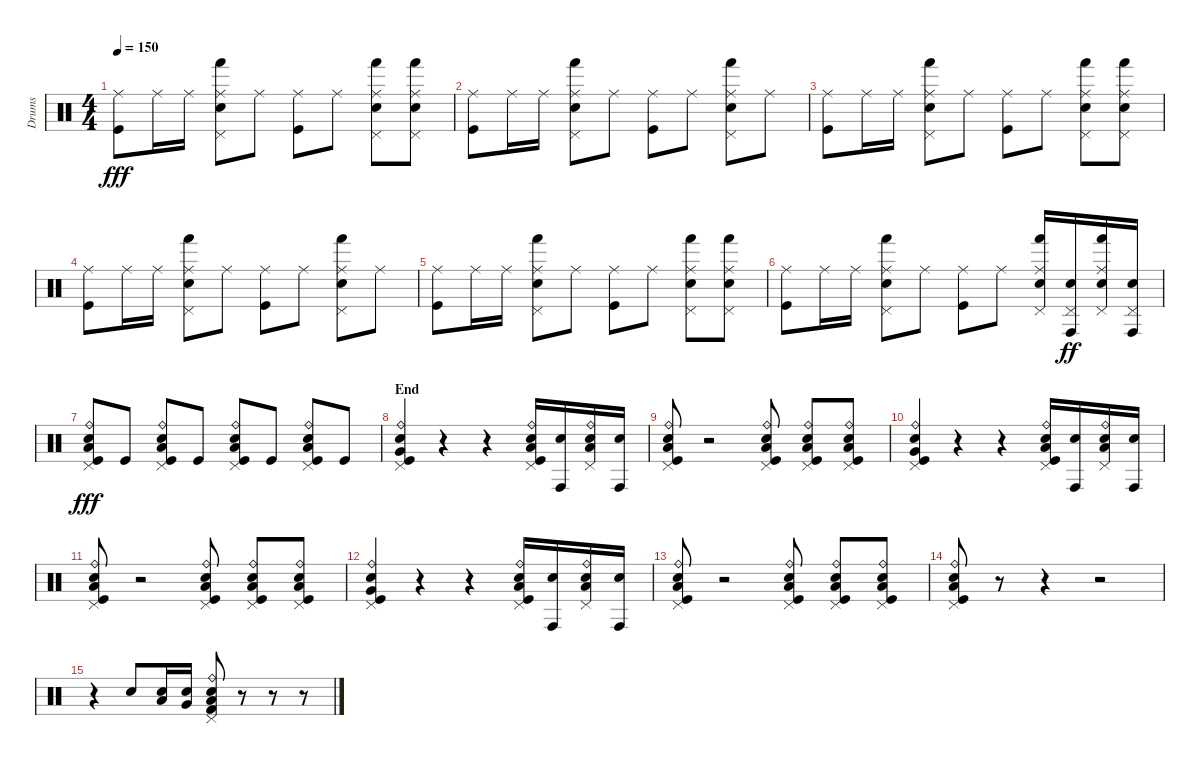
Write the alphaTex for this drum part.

\track ("Drums" "Drums") {instrument percussion}
\staff {score}
\articulation defaults
\ts (4 4)
\tempo 150
\clef neutral
\ks c
("Ride (middle)" "Kick (hit)").8{dy fff} "Ride (middle)".16 "Ride (middle)".16 ("Ride (middle)" "Pedal Hi-Hat (hit)" "Hand (hit)" "Electric Snare (hit)").8 "Ride (middle)".8 ("Ride (middle)" "Kick (hit)").8 "Ride (middle)".8 ("Ride (middle)" "Pedal Hi-Hat (hit)" "Hand (hit)" "Electric Snare (hit)").8 ("Ride (middle)" "Pedal Hi-Hat (hit)" "Hand (hit)" "Electric Snare (hit)").8 |
("Ride (middle)" "Kick (hit)").8 "Ride (middle)".16 "Ride (middle)".16 ("Ride (middle)" "Pedal Hi-Hat (hit)" "Hand (hit)" "Electric Snare (hit)").8 "Ride (middle)".8 ("Ride (middle)" "Kick (hit)").8 "Ride (middle)".8 ("Ride (middle)" "Pedal Hi-Hat (hit)" "Hand (hit)" "Electric Snare (hit)").8 "Ride (middle)".8 |
("Ride (middle)" "Kick (hit)").8 "Ride (middle)".16 "Ride (middle)".16 ("Ride (middle)" "Pedal Hi-Hat (hit)" "Hand (hit)" "Electric Snare (hit)").8 "Ride (middle)".8 ("Ride (middle)" "Kick (hit)").8 "Ride (middle)".8 ("Ride (middle)" "Pedal Hi-Hat (hit)" "Hand (hit)" "Electric Snare (hit)").8 ("Ride (middle)" "Pedal Hi-Hat (hit)" "Hand (hit)" "Electric Snare (hit)").8 |
("Ride (middle)" "Kick (hit)").8 "Ride (middle)".16 "Ride (middle)".16 ("Ride (middle)" "Pedal Hi-Hat (hit)" "Hand (hit)" "Electric Snare (hit)").8 "Ride (middle)".8 ("Ride (middle)" "Kick (hit)").8 "Ride (middle)".8 ("Ride (middle)" "Pedal Hi-Hat (hit)" "Hand (hit)" "Electric Snare (hit)").8 "Ride (middle)".8 |
("Ride (middle)" "Kick (hit)").8 "Ride (middle)".16 "Ride (middle)".16 ("Ride (middle)" "Pedal Hi-Hat (hit)" "Hand (hit)" "Electric Snare (hit)").8 "Ride (middle)".8 ("Ride (middle)" "Kick (hit)").8 "Ride (middle)".8 ("Ride (middle)" "Pedal Hi-Hat (hit)" "Hand (hit)" "Electric Snare (hit)").8 ("Ride (middle)" "Pedal Hi-Hat (hit)" "Hand (hit)" "Electric Snare (hit)").8 |
("Ride (middle)" "Kick (hit)").8 "Ride (middle)".16 "Ride (middle)".16 ("Ride (middle)" "Pedal Hi-Hat (hit)" "Hand (hit)" "Electric Snare (hit)").8 "Ride (middle)".8 ("Ride (middle)" "Kick (hit)").8 "Ride (middle)".8 ("Ride (middle)" "Pedal Hi-Hat (hit)" "Hand (hit)" "Electric Snare (hit)").16 ("Pedal Hi-Hat (hit)" "Conga high (hit)" "Electric Snare (hit)").16{dy ff} ("Ride (middle)" "Pedal Hi-Hat (hit)" "Hand (hit)" "Electric Snare (hit)").16 ("Pedal Hi-Hat (hit)" "Conga high (hit)" "Electric Snare (hit)").16 |
("Ride (bell)" "Pedal Hi-Hat (hit)" "Low Tom (hit)" "Electric Snare (hit)" "Kick (hit)").8{dy fff} "Kick (hit)".8 ("Ride (bell)" "Pedal Hi-Hat (hit)" "Low Floor Tom (hit)" "Electric Snare (hit)" "Kick (hit)").8 "Kick (hit)".8 ("Ride (bell)" "Pedal Hi-Hat (hit)" "Low Tom (hit)" "Electric Snare (hit)" "Kick (hit)").8 "Kick (hit)".8 ("Ride (bell)" "Pedal Hi-Hat (hit)" "Low Floor Tom (hit)" "Electric Snare (hit)" "Kick (hit)").8 "Kick (hit)".8 |
\section ("" "End")
("Ride (bell)" "Pedal Hi-Hat (hit)" "Very Low Tom (hit)" "Electric Snare (hit)" "Kick (hit)").4 r.4 r.4 ("Ride (bell)" "Pedal Hi-Hat (hit)" "Low Tom (hit)" "Electric Snare (hit)" "Kick (hit)").16 ("Conga high (hit)" "Electric Snare (hit)").16 ("Ride (bell)" "Pedal Hi-Hat (hit)" "Low Tom (hit)" "Electric Snare (hit)").16 ("Conga high (hit)" "Electric Snare (hit)").16 |
("Ride (bell)" "Pedal Hi-Hat (hit)" "Low Tom (hit)" "Electric Snare (hit)" "Kick (hit)").8 r.2 ("Ride (bell)" "Pedal Hi-Hat (hit)" "Low Floor Tom (hit)" "Electric Snare (hit)" "Kick (hit)").8 ("Ride (bell)" "Pedal Hi-Hat (hit)" "Low Floor Tom (hit)" "Electric Snare (hit)" "Kick (hit)").8 ("Ride (bell)" "Pedal Hi-Hat (hit)" "Low Floor Tom (hit)" "Electric Snare (hit)" "Kick (hit)").8 |
("Ride (bell)" "Pedal Hi-Hat (hit)" "Very Low Tom (hit)" "Electric Snare (hit)" "Kick (hit)").4 r.4 r.4 ("Ride (bell)" "Pedal Hi-Hat (hit)" "Low Tom (hit)" "Electric Snare (hit)" "Kick (hit)").16 ("Conga high (hit)" "Electric Snare (hit)").16 ("Ride (bell)" "Pedal Hi-Hat (hit)" "Low Tom (hit)" "Electric Snare (hit)").16 ("Conga high (hit)" "Electric Snare (hit)").16 |
("Ride (bell)" "Pedal Hi-Hat (hit)" "Low Tom (hit)" "Electric Snare (hit)" "Kick (hit)").8 r.2 ("Ride (bell)" "Pedal Hi-Hat (hit)" "Low Floor Tom (hit)" "Electric Snare (hit)" "Kick (hit)").8 ("Ride (bell)" "Pedal Hi-Hat (hit)" "Low Floor Tom (hit)" "Electric Snare (hit)" "Kick (hit)").8 ("Ride (bell)" "Pedal Hi-Hat (hit)" "Low Floor Tom (hit)" "Electric Snare (hit)" "Kick (hit)").8 |
("Ride (bell)" "Pedal Hi-Hat (hit)" "Very Low Tom (hit)" "Electric Snare (hit)" "Kick (hit)").4 r.4 r.4 ("Ride (bell)" "Pedal Hi-Hat (hit)" "Low Tom (hit)" "Electric Snare (hit)" "Kick (hit)").16 ("Conga high (hit)" "Electric Snare (hit)").16 ("Ride (bell)" "Pedal Hi-Hat (hit)" "Low Tom (hit)" "Electric Snare (hit)").16 ("Conga high (hit)" "Electric Snare (hit)").16 |
("Ride (bell)" "Pedal Hi-Hat (hit)" "Low Tom (hit)" "Electric Snare (hit)" "Kick (hit)").8 r.2 ("Ride (bell)" "Pedal Hi-Hat (hit)" "Low Floor Tom (hit)" "Electric Snare (hit)" "Kick (hit)").8 ("Ride (bell)" "Pedal Hi-Hat (hit)" "Low Floor Tom (hit)" "Electric Snare (hit)" "Kick (hit)").8 ("Ride (bell)" "Pedal Hi-Hat (hit)" "Low Floor Tom (hit)" "Electric Snare (hit)" "Kick (hit)").8 |
("Ride (bell)" "Pedal Hi-Hat (hit)" "Low Floor Tom (hit)" "Electric Snare (hit)" "Kick (hit)").8 r.8 r.4 r.2 |
r.4 "Electric Snare (hit)".8 ("Low Tom (hit)" "Electric Snare (hit)").16 ("Very Low Tom (hit)" "Electric Snare (hit)").16 ("Ride (bell)" "Pedal Hi-Hat (hit)" "Low Floor Tom (hit)" "Electric Snare (hit)" "Kick (hit) 2").8 r.8 r.8 r.8
